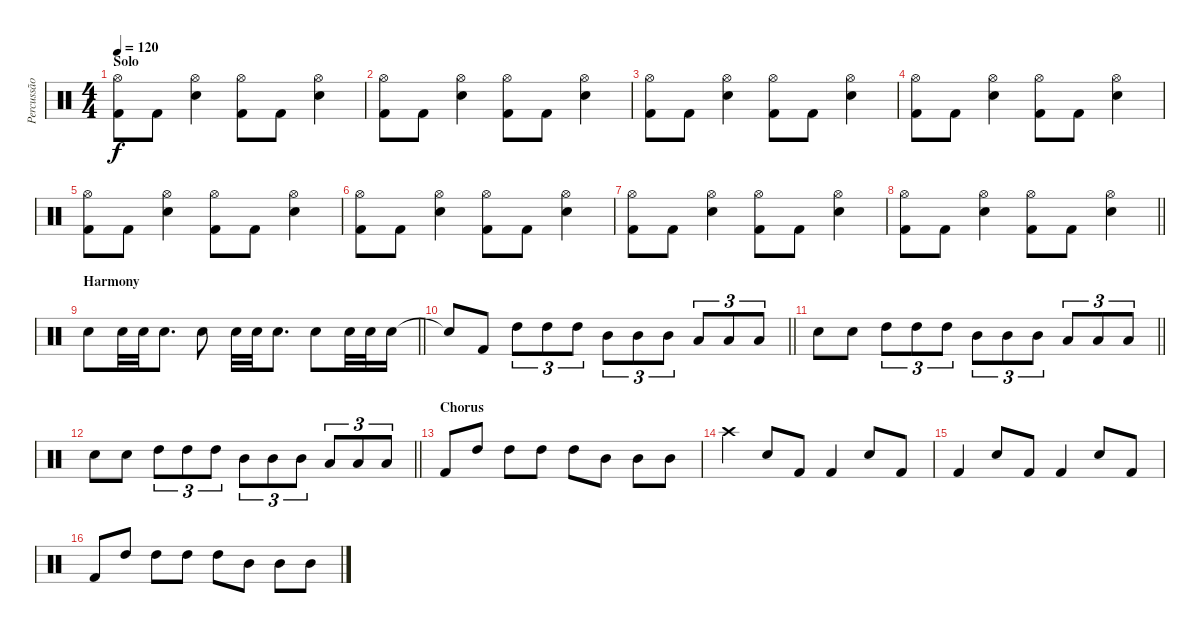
\track ("Percussão" "Percussão") {instrument percussion}
\staff {score}
\articulation defaults
\ts (4 4)
\section ("" "Solo")
\tempo 120
\clef neutral
\ks c
("Hi-Hat (open)" "Kick (hit) 2").8{dy f} "Kick (hit) 2".8 ("Hi-Hat (open)" "Snare (hit) 2").4 ("Hi-Hat (open)" "Kick (hit) 2").8 "Kick (hit) 2".8 ("Hi-Hat (open)" "Snare (hit) 2").4 |
("Hi-Hat (open)" "Kick (hit) 2").8 "Kick (hit) 2".8 ("Hi-Hat (open)" "Snare (hit) 2").4 ("Hi-Hat (open)" "Kick (hit) 2").8 "Kick (hit) 2".8 ("Hi-Hat (open)" "Snare (hit) 2").4 |
("Hi-Hat (open)" "Kick (hit) 2").8 "Kick (hit) 2".8 ("Hi-Hat (open)" "Snare (hit) 2").4 ("Hi-Hat (open)" "Kick (hit) 2").8 "Kick (hit) 2".8 ("Hi-Hat (open)" "Snare (hit) 2").4 |
("Hi-Hat (open)" "Kick (hit) 2").8 "Kick (hit) 2".8 ("Hi-Hat (open)" "Snare (hit) 2").4 ("Hi-Hat (open)" "Kick (hit) 2").8 "Kick (hit) 2".8 ("Hi-Hat (open)" "Snare (hit) 2").4 |
("Hi-Hat (open)" "Kick (hit) 2").8 "Kick (hit) 2".8 ("Hi-Hat (open)" "Snare (hit) 2").4 ("Hi-Hat (open)" "Kick (hit) 2").8 "Kick (hit) 2".8 ("Hi-Hat (open)" "Snare (hit) 2").4 |
("Hi-Hat (open)" "Kick (hit) 2").8 "Kick (hit) 2".8 ("Hi-Hat (open)" "Snare (hit) 2").4 ("Hi-Hat (open)" "Kick (hit) 2").8 "Kick (hit) 2".8 ("Hi-Hat (open)" "Snare (hit) 2").4 |
("Hi-Hat (open)" "Kick (hit) 2").8 "Kick (hit) 2".8 ("Hi-Hat (open)" "Snare (hit) 2").4 ("Hi-Hat (open)" "Kick (hit) 2").8 "Kick (hit) 2".8 ("Hi-Hat (open)" "Snare (hit) 2").4 |
\barLineRight lightlight
("Hi-Hat (open)" "Kick (hit) 2").8 "Kick (hit) 2".8 ("Hi-Hat (open)" "Snare (hit) 2").4 ("Hi-Hat (open)" "Kick (hit) 2").8 "Kick (hit) 2".8 ("Hi-Hat (open)" "Snare (hit) 2").4 |
\section ("" "Harmony ")
\barLineRight lightlight "Snare (hit) 2".8 "Snare (hit) 2".32 "Snare (hit) 2".32 "Snare (hit) 2".8{d} "Snare (hit) 2".8 "Snare (hit) 2".32 "Snare (hit) 2".32 "Snare (hit) 2".8{d} "Snare (hit) 2".8 "Snare (hit) 2".32 "Snare (hit) 2".32 "Snare (hit) 2".16
|
\barLineRight lightlight "Snare (hit) 2"{t}.8 "Kick (hit) 2".8 "High Tom (hit)".8{tu (3 2)} "High Tom (hit)".8{tu (3 2)} "High Tom (hit)".8{tu (3 2)} "Mid Tom (hit)".8{tu (3 2)} "Mid Tom (hit)".8{tu (3 2)} "Mid Tom (hit)".8{tu (3 2)} "Low Tom (hit)".8{tu (3 2)} "Low Tom (hit)".8{tu (3 2)} "Low Tom (hit)".8{tu (3 2)}
|
\barLineRight lightlight "Snare (hit) 2".8 "Snare (hit) 2".8 "High Tom (hit)".8{tu (3 2)} "High Tom (hit)".8{tu (3 2)} "High Tom (hit)".8{tu (3 2)} "Mid Tom (hit)".8{tu (3 2)} "Mid Tom (hit)".8{tu (3 2)} "Mid Tom (hit)".8{tu (3 2)} "Low Tom (hit)".8{tu (3 2)} "Low Tom (hit)".8{tu (3 2)} "Low Tom (hit)".8{tu (3 2)}
|
\barLineRight lightlight "Snare (hit) 2".8 "Snare (hit) 2".8 "High Tom (hit)".8{tu (3 2)} "High Tom (hit)".8{tu (3 2)} "High Tom (hit)".8{tu (3 2)} "Mid Tom (hit)".8{tu (3 2)} "Mid Tom (hit)".8{tu (3 2)} "Mid Tom (hit)".8{tu (3 2)} "Low Tom (hit)".8{tu (3 2)} "Low Tom (hit)".8{tu (3 2)} "Low Tom (hit)".8{tu (3 2)}
|
\section ("" "Chorus")
"Kick (hit) 2".8 "High Tom (hit)".8 "High Tom (hit)".8 "High Tom (hit)".8 "High Tom (hit)".8 "Mid Tom (hit)".8 "Mid Tom (hit)".8 "Mid Tom (hit)".8 |
"Crash high (hit)".4 "Snare (hit) 2".8 "Kick (hit) 2".8 "Kick (hit) 2".4 "Snare (hit) 2".8 "Kick (hit) 2".8 |
"Kick (hit) 2".4 "Snare (hit) 2".8 "Kick (hit) 2".8 "Kick (hit) 2".4 "Snare (hit) 2".8 "Kick (hit) 2".8 |
"Kick (hit) 2".8 "High Tom (hit)".8 "High Tom (hit)".8 "High Tom (hit)".8 "High Tom (hit)".8 "Mid Tom (hit)".8 "Mid Tom (hit)".8 "Mid Tom (hit)".8
